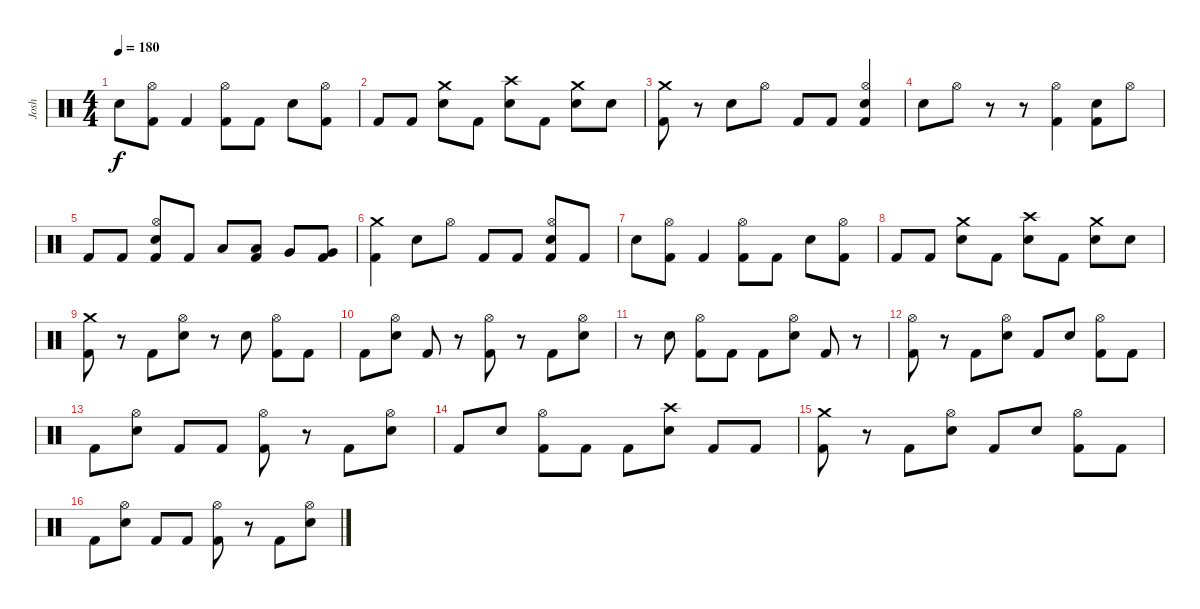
\track ("Josh" "Josh") {instrument percussion}
\staff {score}
\articulation defaults
\ts (4 4)
\tempo 180
\clef neutral
\ks c "Electric Snare (hit)".8{dy f}
("Hi-Hat (open)" "Kick (hit) 2").8 "Kick (hit) 2".4 ("Hi-Hat (open)" "Kick (hit) 2").8 "Kick (hit) 2".8 "Electric Snare (hit)".8 ("Hi-Hat (open)" "Kick (hit) 2").8 |
"Kick (hit) 2".8 "Kick (hit) 2".8 ("Crash medium (hit)" "Electric Snare (hit)").8 "Kick (hit) 2".8 ("Crash high (hit)" "Electric Snare (hit)").8 "Kick (hit) 2".8 ("Crash medium (hit)" "Electric Snare (hit)").8 "Electric Snare (hit)".8 |
("Crash medium (hit)" "Kick (hit) 2").8 r.8 "Electric Snare (hit)".8 "Hi-Hat (open)".8 "Kick (hit) 2".8 "Kick (hit) 2".8 ("Hi-Hat (open)" "Electric Snare (hit)" "Kick (hit) 2").4 |
"Electric Snare (hit)".8 "Hi-Hat (open)".8 r.8 r.8 ("Hi-Hat (open)" "Kick (hit) 2").4 ("Electric Snare (hit)" "Kick (hit) 2").8 "Hi-Hat (open)".8 |
"Kick (hit) 2".8 "Kick (hit) 2".8 ("Hi-Hat (open)" "Electric Snare (hit)" "Kick (hit) 2").8 "Kick (hit) 2".8 "Low Tom (hit)".8 ("Low Tom (hit)" "Kick (hit) 2").8 "Very Low Tom (hit)".8 ("Very Low Tom (hit)" "Kick (hit) 2").8 |
("Crash medium (hit)" "Kick (hit) 2").4 "Electric Snare (hit)".8 "Hi-Hat (open)".8 "Kick (hit) 2".8 "Kick (hit) 2".8 ("Hi-Hat (open)" "Electric Snare (hit)" "Kick (hit) 2").8 "Kick (hit) 2".8 |
"Electric Snare (hit)".8 ("Hi-Hat (open)" "Kick (hit) 2").8 "Kick (hit) 2".4 ("Hi-Hat (open)" "Kick (hit) 2").8 "Kick (hit) 2".8 "Electric Snare (hit)".8 ("Hi-Hat (open)" "Kick (hit) 2").8 |
"Kick (hit) 2".8 "Kick (hit) 2".8 ("Crash medium (hit)" "Electric Snare (hit)").8 "Kick (hit) 2".8 ("Crash high (hit)" "Electric Snare (hit)").8 "Kick (hit) 2".8 ("Crash medium (hit)" "Electric Snare (hit)").8 "Electric Snare (hit)".8 |
("Crash medium (hit)" "Kick (hit) 2").8 r.8 "Kick (hit) 2".8 ("Hi-Hat (open)" "Electric Snare (hit)").8 r.8 "Electric Snare (hit)".8 ("Hi-Hat (open)" "Kick (hit) 2").8 "Kick (hit) 2".8 |
"Kick (hit) 2".8 ("Hi-Hat (open)" "Electric Snare (hit)").8 "Kick (hit) 2".8 r.8 ("Hi-Hat (open)" "Kick (hit) 2").8 r.8 "Kick (hit) 2".8 ("Hi-Hat (open)" "Electric Snare (hit)").8 |
r.8 "Electric Snare (hit)".8 ("Hi-Hat (open)" "Kick (hit) 2").8 "Kick (hit) 2".8 "Kick (hit) 2".8 ("Hi-Hat (open)" "Electric Snare (hit)").8 "Kick (hit) 2".8 r.8 |
("Hi-Hat (open)" "Kick (hit) 2").8 r.8 "Kick (hit) 2".8 ("Hi-Hat (open)" "Electric Snare (hit)").8 "Kick (hit) 2".8 "Electric Snare (hit)".8 ("Hi-Hat (open)" "Kick (hit) 2").8 "Kick (hit) 2".8 |
"Kick (hit) 2".8 ("Hi-Hat (open)" "Electric Snare (hit)").8 "Kick (hit) 2".8 "Kick (hit) 2".8 ("Hi-Hat (open)" "Kick (hit) 2").8 r.8 "Kick (hit) 2".8 ("Hi-Hat (open)" "Electric Snare (hit)").8 |
"Kick (hit) 2".8 "Electric Snare (hit)".8 ("Hi-Hat (open)" "Kick (hit) 2").8 "Kick (hit) 2".8 "Kick (hit) 2".8 ("Crash high (hit)" "Electric Snare (hit)").8 "Kick (hit) 2".8 "Kick (hit) 2".8 |
("Crash medium (hit)" "Kick (hit) 2").8 r.8 "Kick (hit) 2".8 ("Hi-Hat (open)" "Electric Snare (hit)").8 "Kick (hit) 2".8 "Electric Snare (hit)".8 ("Hi-Hat (open)" "Kick (hit) 2").8 "Kick (hit) 2".8 |
"Kick (hit) 2".8 ("Hi-Hat (open)" "Electric Snare (hit)").8 "Kick (hit) 2".8 "Kick (hit) 2".8 ("Hi-Hat (open)" "Kick (hit) 2").8 r.8 "Kick (hit) 2".8 ("Hi-Hat (open)" "Electric Snare (hit)").8
